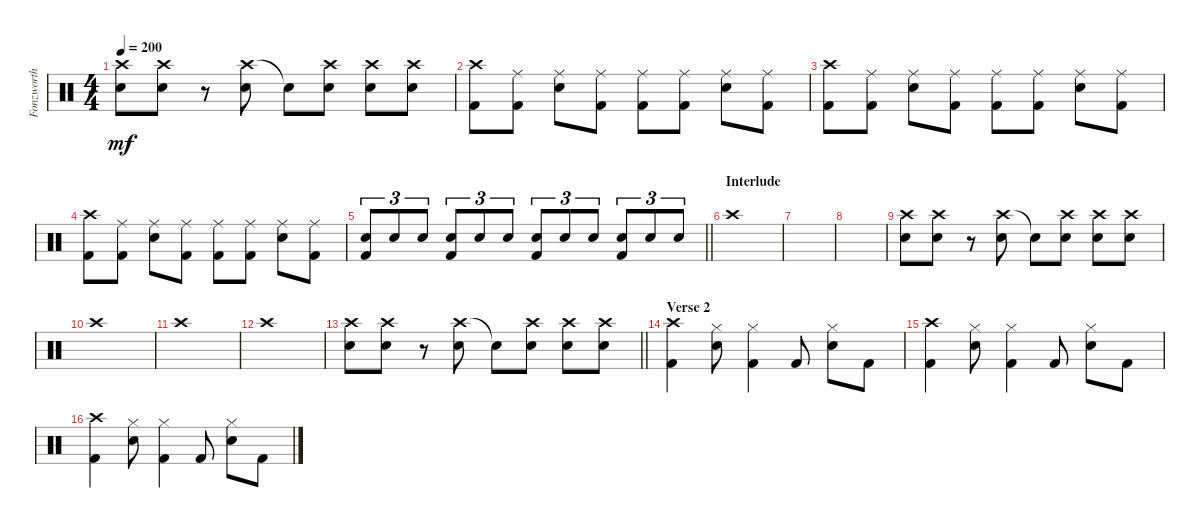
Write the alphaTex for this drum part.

\track ("Fonzworth Fred" "Fonzworth ") {instrument percussion}
\staff {score}
\articulation defaults
\ts (4 4)
\tempo 200
\clef neutral
\ks c
("Crash high (hit)" "Snare (hit) 2").8{dy mf} ("Crash high (hit)" "Snare (hit) 2").8 r.8 ("Crash high (hit)" "Snare (hit) 2").8 "Snare (hit)"{t}.8 ("Crash high (hit)" "Snare (hit) 2").8 ("Crash high (hit)" "Snare (hit) 2").8 ("Crash high (hit)" "Snare (hit) 2").8 |
("Crash high (hit)" "Kick (hit) 2").8 ("Ride (middle)" "Kick (hit) 2").8 ("Ride (middle)" "Snare (hit) 2").8 ("Ride (middle)" "Kick (hit) 2").8 ("Ride (middle)" "Kick (hit) 2").8 ("Ride (middle)" "Kick (hit) 2").8 ("Ride (middle)" "Snare (hit) 2").8 ("Ride (middle)" "Kick (hit) 2").8 |
("Crash high (hit)" "Kick (hit) 2").8 ("Ride (middle)" "Kick (hit) 2").8 ("Ride (middle)" "Snare (hit) 2").8 ("Ride (middle)" "Kick (hit) 2").8 ("Ride (middle)" "Kick (hit) 2").8 ("Ride (middle)" "Kick (hit) 2").8 ("Ride (middle)" "Snare (hit) 2").8 ("Ride (middle)" "Kick (hit) 2").8 |
("Crash high (hit)" "Kick (hit) 2").8 ("Ride (middle)" "Kick (hit) 2").8 ("Ride (middle)" "Snare (hit) 2").8 ("Ride (middle)" "Kick (hit) 2").8 ("Ride (middle)" "Kick (hit) 2").8 ("Ride (middle)" "Kick (hit) 2").8 ("Ride (middle)" "Snare (hit) 2").8 ("Ride (middle)" "Kick (hit) 2").8 |
\barLineRight lightlight
("Snare (hit) 2" "Kick (hit) 2").8{tu (3 2)} "Snare (hit) 2".8{tu (3 2)} "Snare (hit) 2".8{tu (3 2)} ("Snare (hit) 2" "Kick (hit) 2").8{tu (3 2)} "Snare (hit) 2".8{tu (3 2)} "Snare (hit) 2".8{tu (3 2)} ("Snare (hit) 2" "Kick (hit) 2").8{tu (3 2)} "Snare (hit) 2".8{tu (3 2)} "Snare (hit) 2".8{tu (3 2)} ("Snare (hit) 2" "Kick (hit) 2").8{tu (3 2)} "Snare (hit) 2".8{tu (3 2)} "Snare (hit) 2".8{tu (3 2)} |
\section ("" "Interlude")
"Crash high (hit)".1 |
|
|
("Crash high (hit)" "Snare (hit) 2").8 ("Crash high (hit)" "Snare (hit) 2").8 r.8 ("Crash high (hit)" "Snare (hit) 2").8 "Snare (hit)"{t}.8 ("Crash high (hit)" "Snare (hit) 2").8 ("Crash high (hit)" "Snare (hit) 2").8 ("Crash high (hit)" "Snare (hit) 2").8 |
"Crash high (hit)".1 |
"Crash high (hit)".1 |
"Crash high (hit)".1 |
\barLineRight lightlight
("Crash high (hit)" "Snare (hit) 2").8 ("Crash high (hit)" "Snare (hit) 2").8 r.8 ("Crash high (hit)" "Snare (hit) 2").8 "Snare (hit)"{t}.8 ("Crash high (hit)" "Snare (hit) 2").8 ("Crash high (hit)" "Snare (hit) 2").8 ("Crash high (hit)" "Snare (hit) 2").8 |
\section ("" "Verse 2")
("Crash high (hit)" "Kick (hit) 2").4 ("Hi-Hat (closed)" "Snare (hit) 2").8 ("Hi-Hat (closed)" "Kick (hit) 2").4 "Kick (hit) 2".8 ("Hi-Hat (closed)" "Snare (hit) 2").8 "Kick (hit) 2".8 |
("Crash high (hit)" "Kick (hit) 2").4 ("Hi-Hat (closed)" "Snare (hit) 2").8 ("Hi-Hat (closed)" "Kick (hit) 2").4 "Kick (hit) 2".8 ("Hi-Hat (closed)" "Snare (hit) 2").8 "Kick (hit) 2".8 |
("Crash high (hit)" "Kick (hit) 2").4 ("Hi-Hat (closed)" "Snare (hit) 2").8 ("Hi-Hat (closed)" "Kick (hit) 2").4 "Kick (hit) 2".8 ("Hi-Hat (closed)" "Snare (hit) 2").8 "Kick (hit) 2".8
